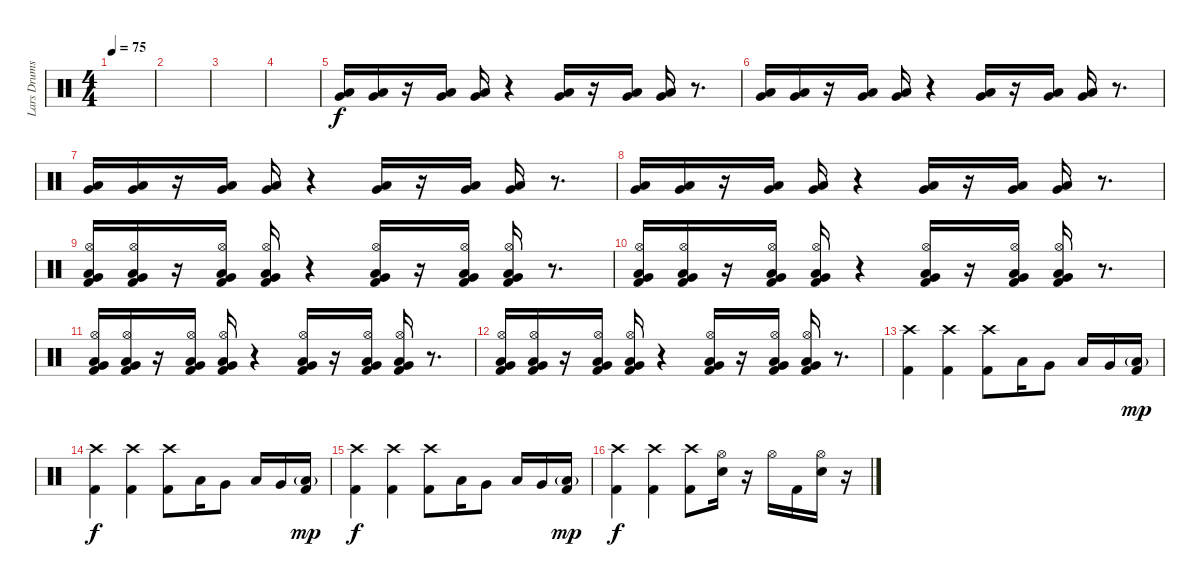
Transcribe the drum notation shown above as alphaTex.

\track ("Lars Drums" "Lars Drums") {instrument percussion}
\staff {score}
\articulation defaults
\ts (4 4)
\tempo 75
\clef neutral
\ks c
|
|
|
|
("Very Low Tom (hit)" "Low Floor Tom (hit)").16 ("Very Low Tom (hit)" "Low Floor Tom (hit)").16 r.16 ("Very Low Tom (hit)" "Low Floor Tom (hit)").16 ("Very Low Tom (hit)" "Low Floor Tom (hit)").16 r.4 ("Very Low Tom (hit)" "Low Floor Tom (hit)").16 r.16 ("Very Low Tom (hit)" "Low Floor Tom (hit)").16 ("Very Low Tom (hit)" "Low Floor Tom (hit)").16 r.8{d} |
("Very Low Tom (hit)" "Low Floor Tom (hit)").16 ("Very Low Tom (hit)" "Low Floor Tom (hit)").16 r.16 ("Very Low Tom (hit)" "Low Floor Tom (hit)").16 ("Very Low Tom (hit)" "Low Floor Tom (hit)").16 r.4 ("Very Low Tom (hit)" "Low Floor Tom (hit)").16 r.16 ("Very Low Tom (hit)" "Low Floor Tom (hit)").16 ("Very Low Tom (hit)" "Low Floor Tom (hit)").16 r.8{d} |
("Very Low Tom (hit)" "Low Floor Tom (hit)").16 ("Very Low Tom (hit)" "Low Floor Tom (hit)").16 r.16 ("Very Low Tom (hit)" "Low Floor Tom (hit)").16 ("Very Low Tom (hit)" "Low Floor Tom (hit)").16 r.4 ("Very Low Tom (hit)" "Low Floor Tom (hit)").16 r.16 ("Very Low Tom (hit)" "Low Floor Tom (hit)").16 ("Very Low Tom (hit)" "Low Floor Tom (hit)").16 r.8{d} |
("Very Low Tom (hit)" "Low Floor Tom (hit)").16 ("Very Low Tom (hit)" "Low Floor Tom (hit)").16 r.16 ("Very Low Tom (hit)" "Low Floor Tom (hit)").16 ("Very Low Tom (hit)" "Low Floor Tom (hit)").16 r.4 ("Very Low Tom (hit)" "Low Floor Tom (hit)").16 r.16 ("Very Low Tom (hit)" "Low Floor Tom (hit)").16 ("Very Low Tom (hit)" "Low Floor Tom (hit)").16 r.8{d} |
("Hi-Hat (open)" "Very Low Tom (hit)" "Kick (hit) 2" "Low Floor Tom (hit)").16 ("Hi-Hat (open)" "Very Low Tom (hit)" "Kick (hit) 2" "Low Floor Tom (hit)").16 r.16 ("Hi-Hat (open)" "Very Low Tom (hit)" "Kick (hit) 2" "Low Floor Tom (hit)").16 ("Hi-Hat (open)" "Very Low Tom (hit)" "Kick (hit) 2" "Low Floor Tom (hit)").16 r.4 ("Hi-Hat (open)" "Very Low Tom (hit)" "Kick (hit) 2" "Low Floor Tom (hit)").16 r.16 ("Hi-Hat (open)" "Very Low Tom (hit)" "Kick (hit) 2" "Low Floor Tom (hit)").16 ("Hi-Hat (open)" "Very Low Tom (hit)" "Kick (hit) 2" "Low Floor Tom (hit)").16 r.8{d} |
("Hi-Hat (open)" "Very Low Tom (hit)" "Kick (hit) 2" "Low Floor Tom (hit)").16 ("Hi-Hat (open)" "Very Low Tom (hit)" "Kick (hit) 2" "Low Floor Tom (hit)").16 r.16 ("Hi-Hat (open)" "Very Low Tom (hit)" "Kick (hit) 2" "Low Floor Tom (hit)").16 ("Hi-Hat (open)" "Very Low Tom (hit)" "Kick (hit) 2" "Low Floor Tom (hit)").16 r.4 ("Hi-Hat (open)" "Very Low Tom (hit)" "Kick (hit) 2" "Low Floor Tom (hit)").16 r.16 ("Hi-Hat (open)" "Very Low Tom (hit)" "Kick (hit) 2" "Low Floor Tom (hit)").16 ("Hi-Hat (open)" "Very Low Tom (hit)" "Kick (hit) 2" "Low Floor Tom (hit)").16 r.8{d} |
("Hi-Hat (open)" "Very Low Tom (hit)" "Kick (hit) 2" "Low Floor Tom (hit)").16 ("Hi-Hat (open)" "Very Low Tom (hit)" "Kick (hit) 2" "Low Floor Tom (hit)").16 r.16 ("Hi-Hat (open)" "Very Low Tom (hit)" "Kick (hit) 2" "Low Floor Tom (hit)").16 ("Hi-Hat (open)" "Very Low Tom (hit)" "Kick (hit) 2" "Low Floor Tom (hit)").16 r.4 ("Hi-Hat (open)" "Very Low Tom (hit)" "Kick (hit) 2" "Low Floor Tom (hit)").16 r.16 ("Hi-Hat (open)" "Very Low Tom (hit)" "Kick (hit) 2" "Low Floor Tom (hit)").16 ("Hi-Hat (open)" "Very Low Tom (hit)" "Kick (hit) 2" "Low Floor Tom (hit)").16 r.8{d} |
("Hi-Hat (open)" "Very Low Tom (hit)" "Kick (hit) 2" "Low Floor Tom (hit)").16 ("Hi-Hat (open)" "Very Low Tom (hit)" "Kick (hit) 2" "Low Floor Tom (hit)").16 r.16 ("Hi-Hat (open)" "Very Low Tom (hit)" "Kick (hit) 2" "Low Floor Tom (hit)").16 ("Hi-Hat (open)" "Very Low Tom (hit)" "Kick (hit) 2" "Low Floor Tom (hit)").16 r.4 ("Hi-Hat (open)" "Very Low Tom (hit)" "Kick (hit) 2" "Low Floor Tom (hit)").16 r.16 ("Hi-Hat (open)" "Very Low Tom (hit)" "Kick (hit) 2" "Low Floor Tom (hit)").16 ("Hi-Hat (open)" "Very Low Tom (hit)" "Kick (hit) 2" "Low Floor Tom (hit)").16 r.8{d} |
("Crash high (hit)" "Kick (hit) 2").4 ("Crash high (hit)" "Kick (hit) 2").4 ("Crash high (hit)" "Kick (hit) 2").8 "Low Floor Tom (hit)".16 "Very Low Tom (hit)".8 "Low Floor Tom (hit)".16 "Very Low Tom (hit)".16 ("Kick (hit) 2" "Low Floor Tom (hit)"{g}).16{dy mp} |
("Crash high (hit)" "Kick (hit) 2").4{dy f} ("Crash high (hit)" "Kick (hit) 2").4 ("Crash high (hit)" "Kick (hit) 2").8 "Low Floor Tom (hit)".16 "Very Low Tom (hit)".8 "Low Floor Tom (hit)".16 "Very Low Tom (hit)".16 ("Kick (hit) 2" "Low Floor Tom (hit)"{g}).16{dy mp} |
("Crash high (hit)" "Kick (hit) 2").4{dy f} ("Crash high (hit)" "Kick (hit) 2").4 ("Crash high (hit)" "Kick (hit) 2").8 "Low Floor Tom (hit)".16 "Very Low Tom (hit)".8 "Low Floor Tom (hit)".16 "Very Low Tom (hit)".16 ("Kick (hit) 2" "Low Floor Tom (hit)"{g}).16{dy mp} |
("Crash high (hit)" "Kick (hit) 2").4{dy f} ("Crash high (hit)" "Kick (hit) 2").4 ("Crash high (hit)" "Kick (hit) 2").8 ("Hi-Hat (open)" "Snare (hit) 2").16 r.16 "Hi-Hat (open)".16 "Kick (hit) 2".16 ("Hi-Hat (open)" "Snare (hit) 2").16 r.16
